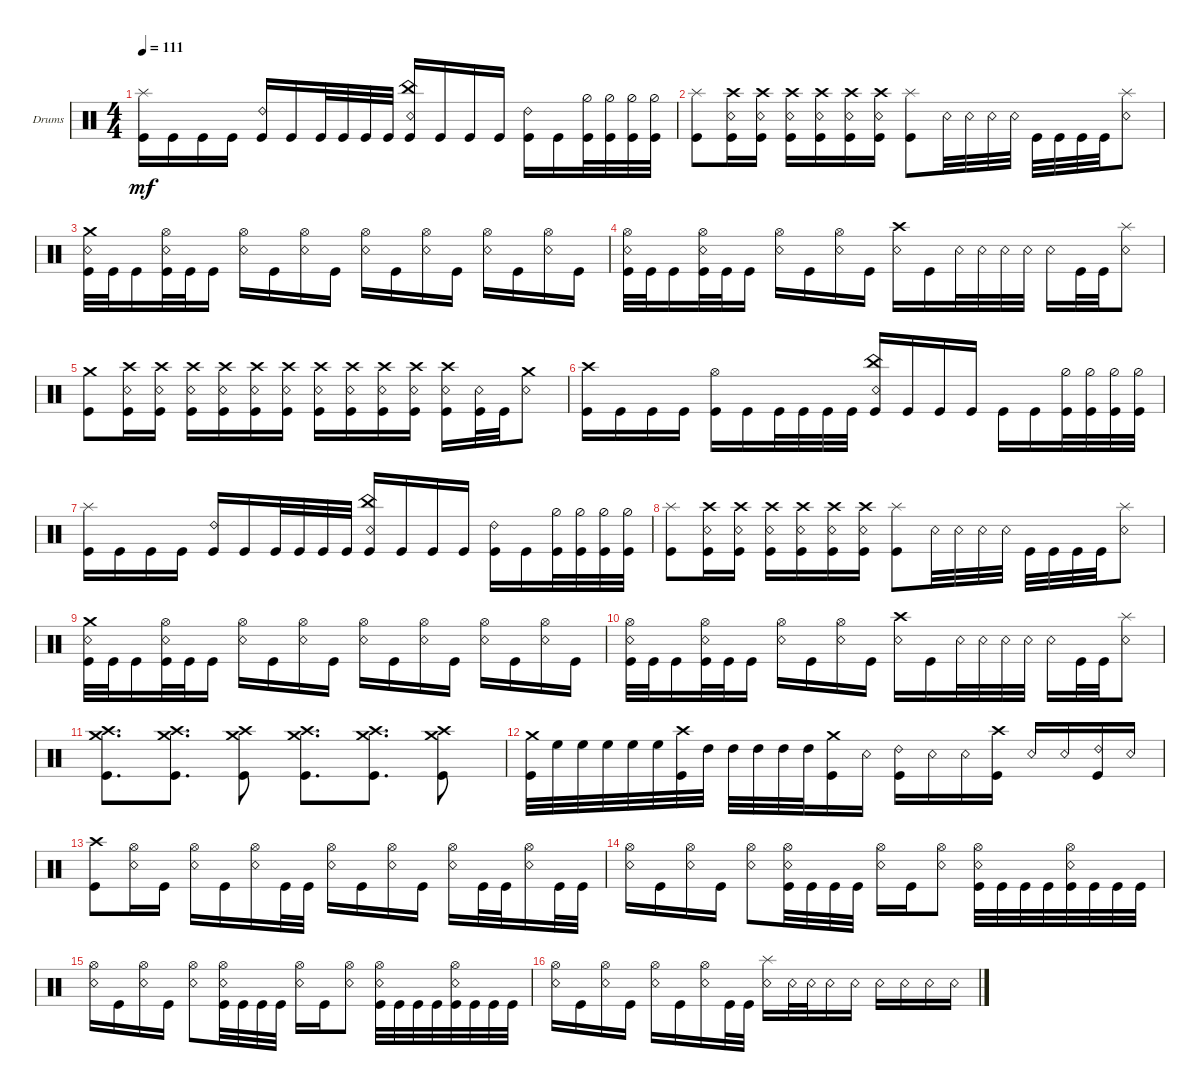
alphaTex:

\defaultSystemsLayout 4
\bracketExtendMode groupsimilarinstruments
\firstSystemTrackNameOrientation horizontal
\otherSystemsTrackNameOrientation horizontal
\track ("Drums" "Drums") {instrument percussion}
\staff {score}
\articulation defaults
\ts (4 4)
\tempo 111
\clef neutral
\ks c
("Kick (hit)" "Splash (hit)").16{dy mf} "Kick (hit)".16 "Kick (hit)".16 "Kick (hit)".16 ("Kick (hit)" "Ride (bell) 2").16 "Kick (hit)".16 "Kick (hit)".32 "Kick (hit)".32 "Kick (hit)".32 "Kick (hit)".32 ("Kick (hit)" "China (hit)" "Snare (rim shot)").16 "Kick (hit)".16 "Kick (hit)".16 "Kick (hit)".16 ("Kick (hit)" "Ride (bell) 2").16 "Kick (hit)".16 ("Kick (hit)" "Hi-Hat (half)").32 ("Kick (hit)" "Hi-Hat (half)").32 ("Kick (hit)" "Hi-Hat (half)").32 ("Kick (hit)" "Hi-Hat (half)").32 |
("Kick (hit)" "Splash (hit)").8 ("Kick (hit)" "Crash high (hit)" "Snare (rim shot)").16 ("Kick (hit)" "Crash high (hit)" "Snare (rim shot)").16 ("Kick (hit)" "Crash high (hit)" "Snare (rim shot)").16 ("Kick (hit)" "Crash high (hit)" "Snare (rim shot)").16 ("Kick (hit)" "Crash high (hit)" "Snare (rim shot)").16 ("Kick (hit)" "Crash high (hit)" "Snare (rim shot)").16 ("Kick (hit)" "Splash (hit)").8 "Snare (rim shot)".32 "Snare (rim shot)".32 "Snare (rim shot)".32 "Snare (rim shot)".32 "Kick (hit)".32 "Kick (hit)".32 "Kick (hit)".32 "Kick (hit)".32 ("Snare (rim shot)" "Splash (hit)").8 |
("Kick (hit)" "Snare (rim shot)" "Crash medium (hit)").32 "Kick (hit)".32 "Kick (hit)".16 ("Kick (hit)" "Snare (rim shot)" "Hi-Hat (open)").32 "Kick (hit)".32 "Kick (hit)".16 ("Snare (rim shot)" "Hi-Hat (open)").16 "Kick (hit)".16 ("Snare (rim shot)" "Hi-Hat (open)").16 "Kick (hit)".16 ("Snare (rim shot)" "Hi-Hat (open)").16 "Kick (hit)".16 ("Snare (rim shot)" "Hi-Hat (open)").16 "Kick (hit)".16 ("Snare (rim shot)" "Hi-Hat (open)").16 "Kick (hit)".16 ("Snare (rim shot)" "Hi-Hat (open)").16 "Kick (hit)".16 |
("Kick (hit)" "Snare (rim shot)" "Hi-Hat (open)").32 "Kick (hit)".32 "Kick (hit)".16 ("Kick (hit)" "Snare (rim shot)" "Hi-Hat (open)").32 "Kick (hit)".32 "Kick (hit)".16 ("Snare (rim shot)" "Hi-Hat (open)").16 "Kick (hit)".16 ("Snare (rim shot)" "Hi-Hat (open)").16 "Kick (hit)".16 ("Crash high (hit)" "Snare (rim shot)").16 "Kick (hit)".16 "Snare (rim shot)".32 "Snare (rim shot)".32 "Snare (rim shot)".32 "Snare (rim shot)".32 "Snare (rim shot)".16 "Kick (hit)".32 "Kick (hit)".32 ("Snare (rim shot)" "Splash (hit)").8 |
("Kick (hit)" "Crash medium (hit)").8 ("Kick (hit)" "Crash high (hit)" "Snare (rim shot)").16 ("Kick (hit)" "Crash high (hit)" "Snare (rim shot)").16 ("Kick (hit)" "Crash high (hit)" "Snare (rim shot)").16 ("Kick (hit)" "Crash high (hit)" "Snare (rim shot)").16 ("Kick (hit)" "Crash high (hit)" "Snare (rim shot)").16 ("Kick (hit)" "Crash high (hit)" "Snare (rim shot)").16 ("Kick (hit)" "Crash high (hit)" "Snare (rim shot)").16 ("Kick (hit)" "Crash high (hit)" "Snare (rim shot)").16 ("Kick (hit)" "Crash high (hit)" "Snare (rim shot)").16 ("Kick (hit)" "Crash high (hit)" "Snare (rim shot)").16 ("Kick (hit)" "Crash high (hit)" "Snare (rim shot)").16 ("Kick (hit)" "Snare (rim shot)").32 "Kick (hit)".32 ("Crash medium (hit)" "Snare (rim shot)").8 |
("Kick (hit)" "Crash high (hit)").16 "Kick (hit)".16 "Kick (hit)".16 "Kick (hit)".16 ("Kick (hit)" "Hi-Hat (open)").16 "Kick (hit)".16 "Kick (hit)".32 "Kick (hit)".32 "Kick (hit)".32 "Kick (hit)".32 ("Kick (hit)" "China (hit)" "Snare (rim shot)").16 "Kick (hit)".16 "Kick (hit)".16 "Kick (hit)".16 "Kick (hit)".16 "Kick (hit)".16 ("Kick (hit)" "Hi-Hat (half)").32 ("Kick (hit)" "Hi-Hat (half)").32 ("Kick (hit)" "Hi-Hat (half)").32 ("Kick (hit)" "Hi-Hat (half)").32 |
("Kick (hit)" "Splash (hit)").16 "Kick (hit)".16 "Kick (hit)".16 "Kick (hit)".16 ("Kick (hit)" "Ride (bell) 2").16 "Kick (hit)".16 "Kick (hit)".32 "Kick (hit)".32 "Kick (hit)".32 "Kick (hit)".32 ("Kick (hit)" "China (hit)" "Snare (rim shot)").16 "Kick (hit)".16 "Kick (hit)".16 "Kick (hit)".16 ("Kick (hit)" "Ride (bell) 2").16 "Kick (hit)".16 ("Kick (hit)" "Hi-Hat (half)").32 ("Kick (hit)" "Hi-Hat (half)").32 ("Kick (hit)" "Hi-Hat (half)").32 ("Kick (hit)" "Hi-Hat (half)").32 |
("Kick (hit)" "Splash (hit)").8 ("Kick (hit)" "Crash high (hit)" "Snare (rim shot)").16 ("Kick (hit)" "Crash high (hit)" "Snare (rim shot)").16 ("Kick (hit)" "Crash high (hit)" "Snare (rim shot)").16 ("Kick (hit)" "Crash high (hit)" "Snare (rim shot)").16 ("Kick (hit)" "Crash high (hit)" "Snare (rim shot)").16 ("Kick (hit)" "Crash high (hit)" "Snare (rim shot)").16 ("Kick (hit)" "Splash (hit)").8 "Snare (rim shot)".32 "Snare (rim shot)".32 "Snare (rim shot)".32 "Snare (rim shot)".32 "Kick (hit)".32 "Kick (hit)".32 "Kick (hit)".32 "Kick (hit)".32 ("Snare (rim shot)" "Splash (hit)").8 |
("Kick (hit)" "Snare (rim shot)" "Crash medium (hit)").32 "Kick (hit)".32 "Kick (hit)".16 ("Kick (hit)" "Snare (rim shot)" "Hi-Hat (open)").32 "Kick (hit)".32 "Kick (hit)".16 ("Snare (rim shot)" "Hi-Hat (open)").16 "Kick (hit)".16 ("Snare (rim shot)" "Hi-Hat (open)").16 "Kick (hit)".16 ("Snare (rim shot)" "Hi-Hat (open)").16 "Kick (hit)".16 ("Snare (rim shot)" "Hi-Hat (open)").16 "Kick (hit)".16 ("Snare (rim shot)" "Hi-Hat (open)").16 "Kick (hit)".16 ("Snare (rim shot)" "Hi-Hat (open)").16 "Kick (hit)".16 |
("Kick (hit)" "Snare (rim shot)" "Hi-Hat (open)").32 "Kick (hit)".32 "Kick (hit)".16 ("Kick (hit)" "Snare (rim shot)" "Hi-Hat (open)").32 "Kick (hit)".32 "Kick (hit)".16 ("Snare (rim shot)" "Hi-Hat (open)").16 "Kick (hit)".16 ("Snare (rim shot)" "Hi-Hat (open)").16 "Kick (hit)".16 ("Crash high (hit)" "Snare (rim shot)").16 "Kick (hit)".16 "Snare (rim shot)".32 "Snare (rim shot)".32 "Snare (rim shot)".32 "Snare (rim shot)".32 "Snare (rim shot)".16 "Kick (hit)".32 "Kick (hit)".32 ("Snare (rim shot)" "Splash (hit)").8 |
("Kick (hit)" "Crash medium (hit)" "Crash high (hit)").8{d} ("Kick (hit)" "Crash medium (hit)" "Crash high (hit)").8{d} ("Kick (hit)" "Crash medium (hit)" "Crash high (hit)").8 ("Kick (hit)" "Crash medium (hit)" "Crash high (hit)").8{d} ("Kick (hit)" "Crash medium (hit)" "Crash high (hit)").8{d} ("Kick (hit)" "Crash medium (hit)" "Crash high (hit)").8 |
("Kick (hit)" "Crash medium (hit)").32 "High Floor Tom (hit)".32 "High Floor Tom (hit)".32 "High Floor Tom (hit)".32 "High Floor Tom (hit)".32 "High Floor Tom (hit)".32 ("Kick (hit)" "Crash high (hit)").32 "High Tom (hit)".32 "High Tom (hit)".32 "High Tom (hit)".32 "High Tom (hit)".32 "High Tom (hit)".32 ("Kick (hit)" "Crash medium (hit)").16 "Snare (rim shot)".16 ("Kick (hit)" "Ride (bell) 2").16 "Snare (rim shot)".16 "Snare (rim shot)".16 ("Kick (hit)" "Crash high (hit)").16 "Snare (rim shot)".16 "Snare (rim shot)".16 ("Kick (hit)" "Ride (bell) 2").16 "Snare (rim shot)".16 |
("Kick (hit)" "Crash high (hit)").8 ("Snare (rim shot)" "Hi-Hat (open)").16 "Kick (hit)".16 ("Snare (rim shot)" "Hi-Hat (open)").16 "Kick (hit)".16 ("Snare (rim shot)" "Hi-Hat (open)").16 "Kick (hit)".32 "Kick (hit)".32 ("Snare (rim shot)" "Hi-Hat (open)").16 "Kick (hit)".16 ("Snare (rim shot)" "Hi-Hat (open)").16 "Kick (hit)".16 ("Snare (rim shot)" "Hi-Hat (open)").16 "Kick (hit)".32 "Kick (hit)".32 ("Snare (rim shot)" "Hi-Hat (open)").16 "Kick (hit)".32 "Kick (hit)".32 |
("Snare (rim shot)" "Hi-Hat (open)").16 "Kick (hit)".16 ("Snare (rim shot)" "Hi-Hat (open)").16 "Kick (hit)".16 ("Snare (rim shot)" "Hi-Hat (open)").8 ("Snare (rim shot)" "Kick (hit)" "Hi-Hat (open)").32 "Kick (hit)".32 "Kick (hit)".32 "Kick (hit)".32 ("Snare (rim shot)" "Hi-Hat (open)").16 "Kick (hit)".16 ("Snare (rim shot)" "Hi-Hat (open)").8 ("Kick (hit)" "Snare (rim shot)" "Hi-Hat (open)").32 "Kick (hit)".32 "Kick (hit)".32 "Kick (hit)".32 ("Kick (hit)" "Snare (rim shot)" "Hi-Hat (open)").32 "Kick (hit)".32 "Kick (hit)".32 "Kick (hit)".32 |
("Snare (rim shot)" "Hi-Hat (open)").16 "Kick (hit)".16 ("Snare (rim shot)" "Hi-Hat (open)").16 "Kick (hit)".16 ("Snare (rim shot)" "Hi-Hat (open)").8 ("Snare (rim shot)" "Kick (hit)" "Hi-Hat (open)").32 "Kick (hit)".32 "Kick (hit)".32 "Kick (hit)".32 ("Snare (rim shot)" "Hi-Hat (open)").16 "Kick (hit)".16 ("Snare (rim shot)" "Hi-Hat (open)").8 ("Kick (hit)" "Snare (rim shot)" "Hi-Hat (open)").32 "Kick (hit)".32 "Kick (hit)".32 "Kick (hit)".32 ("Kick (hit)" "Snare (rim shot)" "Hi-Hat (open)").32 "Kick (hit)".32 "Kick (hit)".32 "Kick (hit)".32 |
("Snare (rim shot)" "Hi-Hat (open)").16 "Kick (hit)".16 ("Snare (rim shot)" "Hi-Hat (open)").16 "Kick (hit)".16 ("Snare (rim shot)" "Hi-Hat (open)").16 "Kick (hit)".16 ("Snare (rim shot)" "Hi-Hat (open)").16 "Kick (hit)".32 "Kick (hit)".32 ("Snare (rim shot)" "Splash (hit)").16 "Snare (rim shot)".32 "Snare (rim shot)".32 "Snare (rim shot)".16 "Snare (rim shot)".16 "Snare (rim shot)".16 "Snare (rim shot)".16 "Snare (rim shot)".16 "Snare (rim shot)".16
